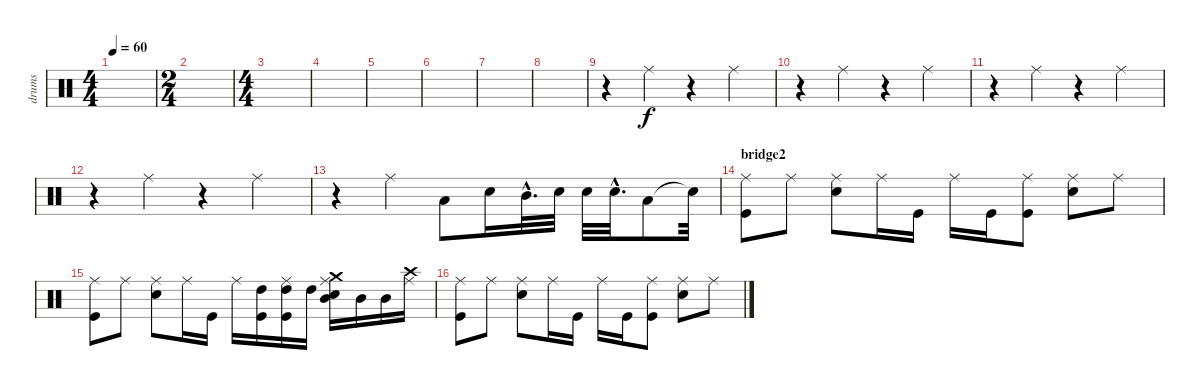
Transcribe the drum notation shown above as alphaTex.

\track ("drums" "drums") {instrument percussion}
\staff {score}
\articulation defaults
\ts (4 4)
\tempo 60
\clef neutral
\ks c
|
\ts (2 4)
|
\ts (4 4)
|
|
|
|
|
|
r.4 "Ride (middle)".4 r.4 "Ride (middle)".4 |
r.4 "Ride (middle)".4 r.4 "Ride (middle)".4 |
r.4 "Ride (middle)".4 r.4 "Ride (middle)".4 |
r.4 "Ride (middle)".4 r.4 "Ride (middle)".4 |
r.4 "Ride (middle)".4 "Low Tom (hit)".8 "Snare (hit) 2".16 "Mid Tom (hit)"{hac}.32{d} "Snare (hit) 2".32 "Snare (hit) 2".32 "Snare (hit) 2"{hac}.32{d} "Low Tom (hit)".8 "Snare (hit)"{t}.32 |
\section ("" "bridge2")
("Ride (middle)" "Kick (hit)").8 "Ride (middle)".8 ("Ride (middle)" "Snare (hit) 2").8 "Ride (middle)".16 "Kick (hit)".16 "Ride (middle)".16 "Kick (hit)".16 ("Ride (middle)" "Kick (hit)").8 ("Ride (middle)" "Snare (hit) 2").8 "Ride (middle)".8 |
("Ride (middle)" "Kick (hit)").8 "Ride (middle)".8 ("Ride (middle)" "Snare (hit) 2").8 "Ride (middle)".16 "Kick (hit)".16 "Ride (middle)".16 ("Kick (hit)" "High Tom (hit)").16 ("Ride (middle)" "Kick (hit)" "High Tom (hit)").16 "High Tom (hit)".16 ("Ride (middle)" "Crash medium (hit)" "Snare (hit) 2" "Mid Tom (hit)").16 "Mid Tom (hit)".16 "Mid Tom (hit)".16 ("Ride (middle)" "Crash high (hit)").16 |
("Ride (middle)" "Kick (hit)").8 "Ride (middle)".8 ("Ride (middle)" "Snare (hit) 2").8 "Ride (middle)".16 "Kick (hit)".16 "Ride (middle)".16 "Kick (hit)".16 ("Ride (middle)" "Kick (hit)").8 ("Ride (middle)" "Snare (hit) 2").8 "Ride (middle)".8
